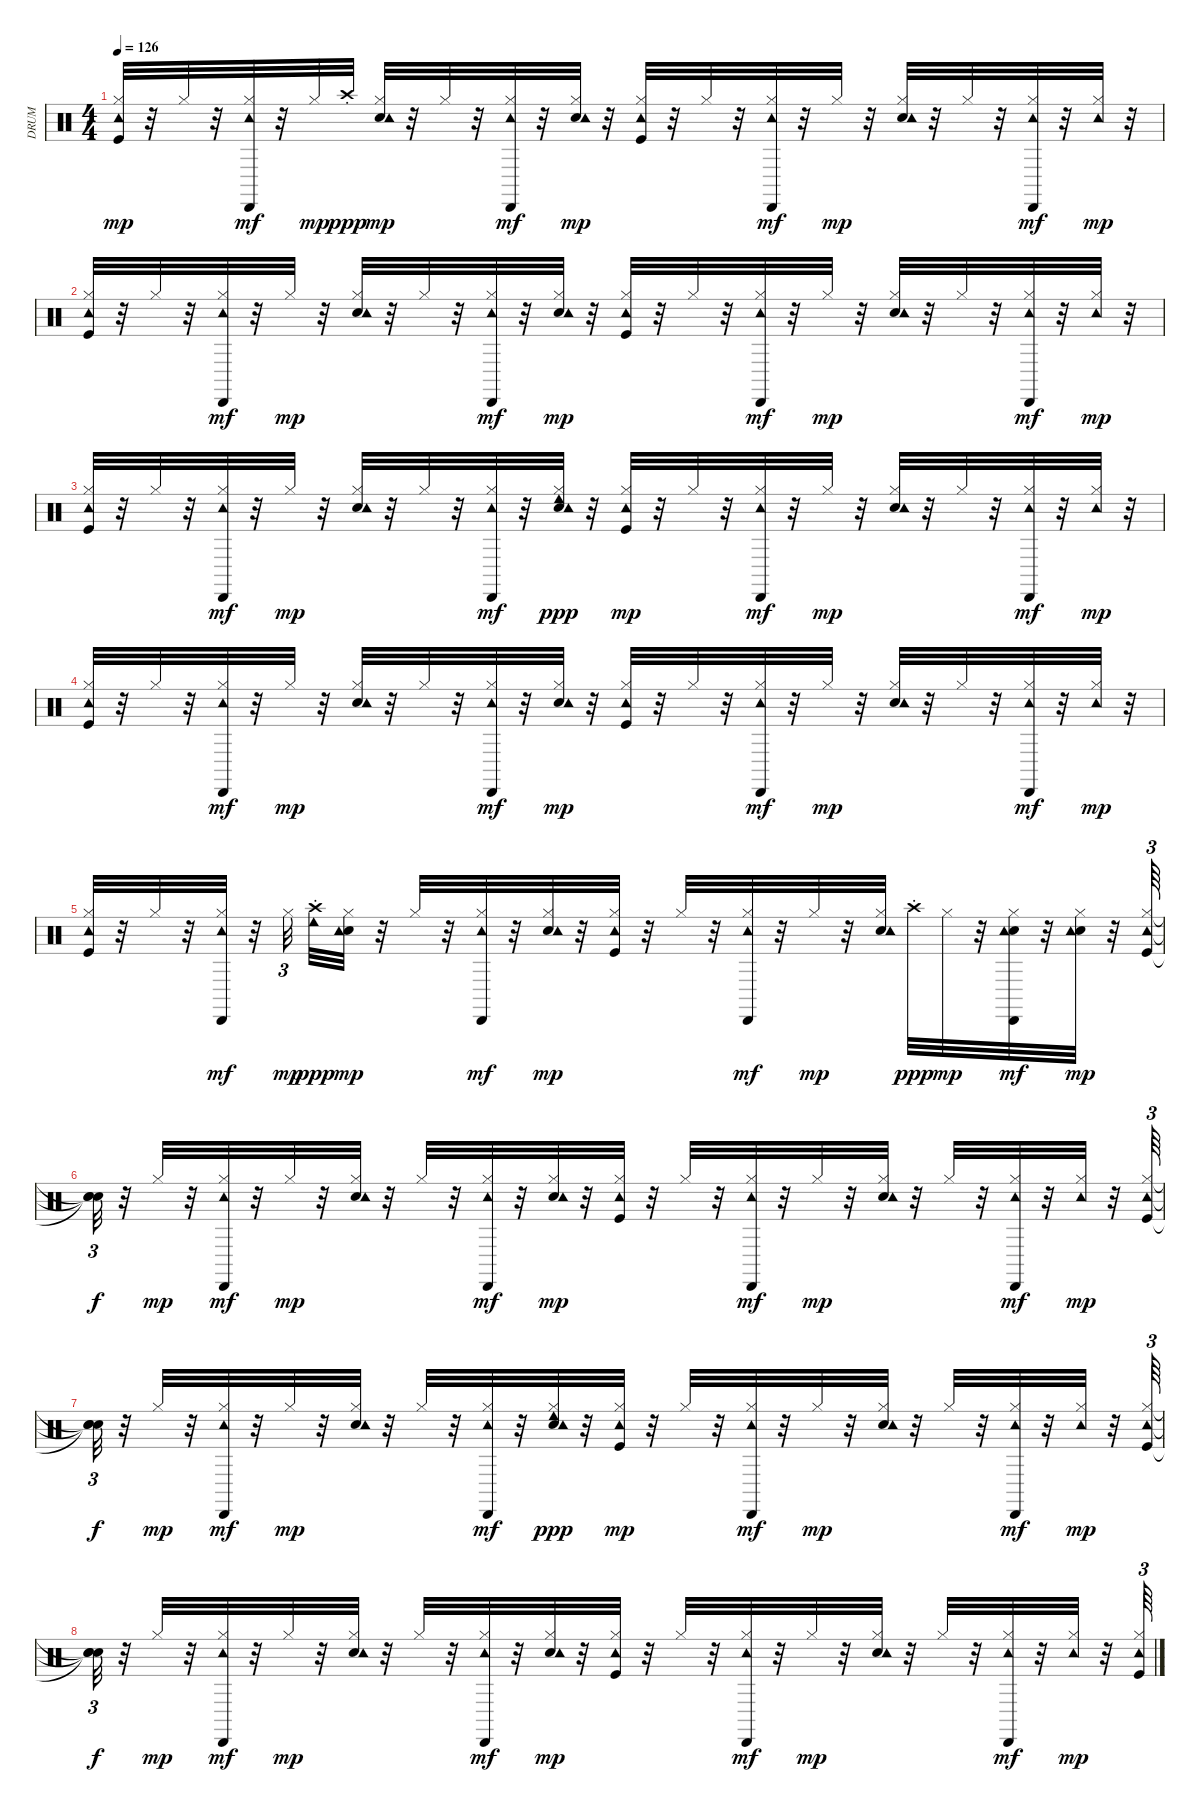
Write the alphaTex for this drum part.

\track ("DRUM" "DRUM") {instrument percussion}
\staff {score}
\articulation defaults
\ts (4 4)
\tempo 126
\clef neutral
\ks c
("Kick (hit)" "Hi-Hat (closed)" "Tambourine (hit)").32{dy mp} r.32 "Hi-Hat (closed)".32 r.32 ("Hi-Hat (closed)" "Tambourine (hit)" "Cabasa (hit)").32{dy mf} r.32 "Hi-Hat (closed)".32{dy mp} "Crash high (choke)".32{dy ppp} ("Snare (hit) 2" "Hi-Hat (closed)" "Tambourine (hit)").32{dy mp} r.32 "Hi-Hat (closed)".32 r.32 ("Hi-Hat (closed)" "Tambourine (hit)" "Cabasa (hit)").32{dy mf} r.32 ("Snare (hit) 2" "Hi-Hat (closed)" "Tambourine (hit)").32{dy mp} r.32 ("Kick (hit)" "Hi-Hat (closed)" "Tambourine (hit)").32 r.32 "Hi-Hat (closed)".32 r.32 ("Hi-Hat (closed)" "Tambourine (hit)" "Cabasa (hit)").32{dy mf} r.32 "Hi-Hat (closed)".32{dy mp} r.32 ("Snare (hit) 2" "Hi-Hat (closed)" "Tambourine (hit)").32 r.32 "Hi-Hat (closed)".32 r.32 ("Hi-Hat (closed)" "Tambourine (hit)" "Cabasa (hit)").32{dy mf} r.32 ("Hi-Hat (closed)" "Tambourine (hit)").32{dy mp} r.32 |
("Kick (hit)" "Hi-Hat (closed)" "Tambourine (hit)").32 r.32 "Hi-Hat (closed)".32 r.32 ("Hi-Hat (closed)" "Tambourine (hit)" "Cabasa (hit)").32{dy mf} r.32 "Hi-Hat (closed)".32{dy mp} r.32 ("Snare (hit) 2" "Hi-Hat (closed)" "Tambourine (hit)").32 r.32 "Hi-Hat (closed)".32 r.32 ("Hi-Hat (closed)" "Tambourine (hit)" "Cabasa (hit)").32{dy mf} r.32 ("Snare (hit) 2" "Hi-Hat (closed)" "Tambourine (hit)").32{dy mp} r.32 ("Kick (hit)" "Hi-Hat (closed)" "Tambourine (hit)").32 r.32 "Hi-Hat (closed)".32 r.32 ("Hi-Hat (closed)" "Tambourine (hit)" "Cabasa (hit)").32{dy mf} r.32 "Hi-Hat (closed)".32{dy mp} r.32 ("Snare (hit) 2" "Hi-Hat (closed)" "Tambourine (hit)").32 r.32 "Hi-Hat (closed)".32 r.32 ("Hi-Hat (closed)" "Tambourine (hit)" "Cabasa (hit)").32{dy mf} r.32 ("Hi-Hat (closed)" "Tambourine (hit)").32{dy mp} r.32 |
("Kick (hit)" "Hi-Hat (closed)" "Tambourine (hit)").32 r.32 "Hi-Hat (closed)".32 r.32 ("Hi-Hat (closed)" "Tambourine (hit)" "Cabasa (hit)").32{dy mf} r.32 "Hi-Hat (closed)".32{dy mp} r.32 ("Snare (hit) 2" "Hi-Hat (closed)" "Tambourine (hit)").32 r.32 "Hi-Hat (closed)".32 r.32 ("Hi-Hat (closed)" "Tambourine (hit)" "Cabasa (hit)").32{dy mf} r.32 ("Snare (hit) 2" "Hi-Hat (closed)" "Tambourine (hit)" "Cowbell low (hit)").32{dy ppp} r.32 ("Kick (hit)" "Hi-Hat (closed)" "Tambourine (hit)").32{dy mp} r.32 "Hi-Hat (closed)".32 r.32 ("Hi-Hat (closed)" "Tambourine (hit)" "Cabasa (hit)").32{dy mf} r.32 "Hi-Hat (closed)".32{dy mp} r.32 ("Snare (hit) 2" "Hi-Hat (closed)" "Tambourine (hit)").32 r.32 "Hi-Hat (closed)".32 r.32 ("Hi-Hat (closed)" "Tambourine (hit)" "Cabasa (hit)").32{dy mf} r.32 ("Hi-Hat (closed)" "Tambourine (hit)").32{dy mp} r.32 |
("Kick (hit)" "Hi-Hat (closed)" "Tambourine (hit)").32 r.32 "Hi-Hat (closed)".32 r.32 ("Hi-Hat (closed)" "Tambourine (hit)" "Cabasa (hit)").32{dy mf} r.32 "Hi-Hat (closed)".32{dy mp} r.32 ("Snare (hit) 2" "Hi-Hat (closed)" "Tambourine (hit)").32 r.32 "Hi-Hat (closed)".32 r.32 ("Hi-Hat (closed)" "Tambourine (hit)" "Cabasa (hit)").32{dy mf} r.32 ("Snare (hit) 2" "Hi-Hat (closed)" "Tambourine (hit)").32{dy mp} r.32 ("Kick (hit)" "Hi-Hat (closed)" "Tambourine (hit)").32 r.32 "Hi-Hat (closed)".32 r.32 ("Hi-Hat (closed)" "Tambourine (hit)" "Cabasa (hit)").32{dy mf} r.32 "Hi-Hat (closed)".32{dy mp} r.32 ("Snare (hit) 2" "Hi-Hat (closed)" "Tambourine (hit)").32 r.32 "Hi-Hat (closed)".32 r.32 ("Hi-Hat (closed)" "Tambourine (hit)" "Cabasa (hit)").32{dy mf} r.32 ("Hi-Hat (closed)" "Tambourine (hit)").32{dy mp} r.32 |
("Kick (hit)" "Hi-Hat (closed)" "Tambourine (hit)").32 r.32 "Hi-Hat (closed)".32 r.32 ("Hi-Hat (closed)" "Tambourine (hit)" "Cabasa (hit)").32{dy mf} r.32 "Hi-Hat (closed)".32{tu (3 2) dy mp} ("Cowbell low (hit)" "Crash high (choke)").32{dy ppp} ("Snare (hit) 2" "Hi-Hat (closed)" "Tambourine (hit)").32{dy mp} r.32 "Hi-Hat (closed)".32 r.32 ("Hi-Hat (closed)" "Tambourine (hit)" "Cabasa (hit)").32{dy mf} r.32 ("Snare (hit) 2" "Hi-Hat (closed)" "Tambourine (hit)").32{dy mp} r.32 ("Kick (hit)" "Hi-Hat (closed)" "Tambourine (hit)").32 r.32 "Hi-Hat (closed)".32 r.32 ("Hi-Hat (closed)" "Tambourine (hit)" "Cabasa (hit)").32{dy mf} r.32 "Hi-Hat (closed)".32{dy mp} r.32 ("Snare (hit) 2" "Hi-Hat (closed)" "Tambourine (hit)").32 "Crash high (choke)".32{dy ppp} "Hi-Hat (closed)".32{dy mp} r.32 ("Snare (hit) 2" "Hi-Hat (closed)" "Tambourine (hit)" "Cabasa (hit)").32{dy mf} r.32 ("Snare (hit) 2" "Hi-Hat (closed)" "Tambourine (hit)").32{dy mp} r.32 ("Kick (hit)" "Hi-Hat (closed)" "Tambourine (hit)").64{tu (3 2)} |
("Snare (hit)"{t} "Snare (hit)"{t} "Snare (hit)"{t}).32{tu (3 2) dy f} r.32 "Hi-Hat (closed)".32{dy mp} r.32 ("Hi-Hat (closed)" "Tambourine (hit)" "Cabasa (hit)").32{dy mf} r.32 "Hi-Hat (closed)".32{dy mp} r.32 ("Snare (hit) 2" "Hi-Hat (closed)" "Tambourine (hit)").32 r.32 "Hi-Hat (closed)".32 r.32 ("Hi-Hat (closed)" "Tambourine (hit)" "Cabasa (hit)").32{dy mf} r.32 ("Snare (hit) 2" "Hi-Hat (closed)" "Tambourine (hit)").32{dy mp} r.32 ("Kick (hit)" "Hi-Hat (closed)" "Tambourine (hit)").32 r.32 "Hi-Hat (closed)".32 r.32 ("Hi-Hat (closed)" "Tambourine (hit)" "Cabasa (hit)").32{dy mf} r.32 "Hi-Hat (closed)".32{dy mp} r.32 ("Snare (hit) 2" "Hi-Hat (closed)" "Tambourine (hit)").32 r.32 "Hi-Hat (closed)".32 r.32 ("Hi-Hat (closed)" "Tambourine (hit)" "Cabasa (hit)").32{dy mf} r.32 ("Hi-Hat (closed)" "Tambourine (hit)").32{dy mp} r.32 ("Kick (hit)" "Hi-Hat (closed)" "Tambourine (hit)").64{tu (3 2)} |
("Snare (hit)"{t} "Snare (hit)"{t} "Snare (hit)"{t}).32{tu (3 2) dy f} r.32 "Hi-Hat (closed)".32{dy mp} r.32 ("Hi-Hat (closed)" "Tambourine (hit)" "Cabasa (hit)").32{dy mf} r.32 "Hi-Hat (closed)".32{dy mp} r.32 ("Snare (hit) 2" "Hi-Hat (closed)" "Tambourine (hit)").32 r.32 "Hi-Hat (closed)".32 r.32 ("Hi-Hat (closed)" "Tambourine (hit)" "Cabasa (hit)").32{dy mf} r.32 ("Snare (hit) 2" "Hi-Hat (closed)" "Tambourine (hit)" "Cowbell low (hit)").32{dy ppp} r.32 ("Kick (hit)" "Hi-Hat (closed)" "Tambourine (hit)").32{dy mp} r.32 "Hi-Hat (closed)".32 r.32 ("Hi-Hat (closed)" "Tambourine (hit)" "Cabasa (hit)").32{dy mf} r.32 "Hi-Hat (closed)".32{dy mp} r.32 ("Snare (hit) 2" "Hi-Hat (closed)" "Tambourine (hit)").32 r.32 "Hi-Hat (closed)".32 r.32 ("Hi-Hat (closed)" "Tambourine (hit)" "Cabasa (hit)").32{dy mf} r.32 ("Hi-Hat (closed)" "Tambourine (hit)").32{dy mp} r.32 ("Kick (hit)" "Hi-Hat (closed)" "Tambourine (hit)").64{tu (3 2)} |
("Snare (hit)"{t} "Snare (hit)"{t} "Snare (hit)"{t}).32{tu (3 2) dy f} r.32 "Hi-Hat (closed)".32{dy mp} r.32 ("Hi-Hat (closed)" "Tambourine (hit)" "Cabasa (hit)").32{dy mf} r.32 "Hi-Hat (closed)".32{dy mp} r.32 ("Snare (hit) 2" "Hi-Hat (closed)" "Tambourine (hit)").32 r.32 "Hi-Hat (closed)".32 r.32 ("Hi-Hat (closed)" "Tambourine (hit)" "Cabasa (hit)").32{dy mf} r.32 ("Snare (hit) 2" "Hi-Hat (closed)" "Tambourine (hit)").32{dy mp} r.32 ("Kick (hit)" "Hi-Hat (closed)" "Tambourine (hit)").32 r.32 "Hi-Hat (closed)".32 r.32 ("Hi-Hat (closed)" "Tambourine (hit)" "Cabasa (hit)").32{dy mf} r.32 "Hi-Hat (closed)".32{dy mp} r.32 ("Snare (hit) 2" "Hi-Hat (closed)" "Tambourine (hit)").32 r.32 "Hi-Hat (closed)".32 r.32 ("Hi-Hat (closed)" "Tambourine (hit)" "Cabasa (hit)").32{dy mf} r.32 ("Hi-Hat (closed)" "Tambourine (hit)").32{dy mp} r.32 ("Kick (hit)" "Hi-Hat (closed)" "Tambourine (hit)").64{tu (3 2)}
